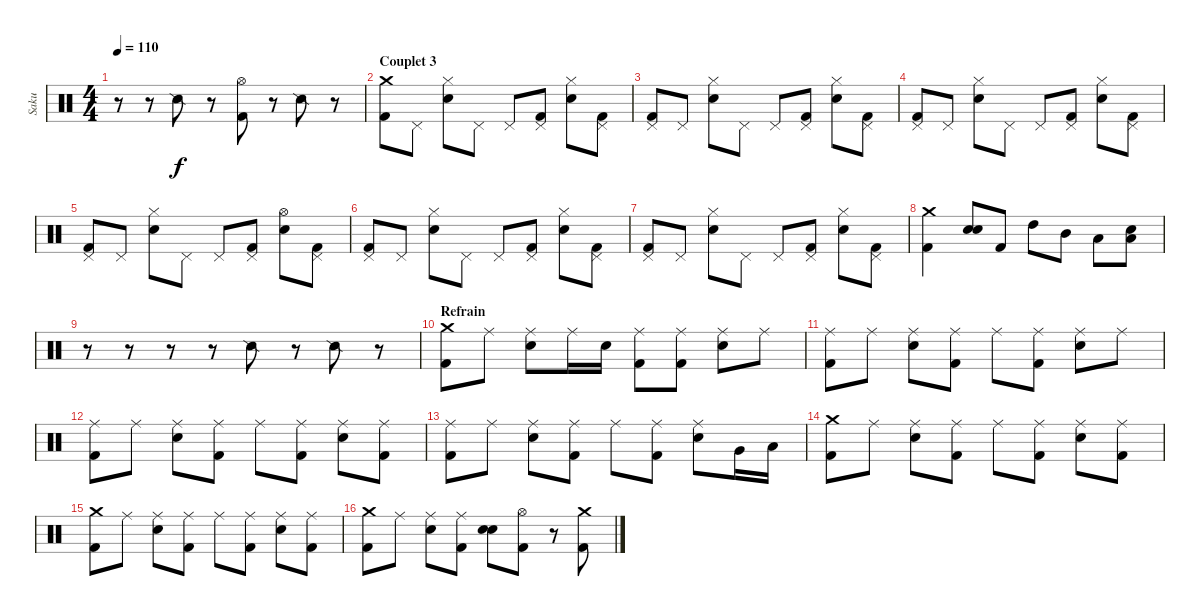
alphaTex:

\track ("Saku" "Saku") {instrument percussion}
\staff {score}
\articulation defaults
\ts (4 4)
\tempo 110
\clef neutral
\ks c
r.8{dy f} r.8 "Snare (side stick) 2".8 r.8 ("Hi-Hat (open)" "Kick (hit) 2").8 r.8 "Snare (side stick) 2".8 r.8 |
\section ("" "Couplet 3")
("Crash medium (hit)" "Kick (hit) 2").8 "Pedal Hi-Hat (hit)".8 ("Hi-Hat (closed)" "Electric Snare (hit)").8 "Pedal Hi-Hat (hit)".8 "Pedal Hi-Hat (hit)".8 ("Pedal Hi-Hat (hit)" "Kick (hit) 2").8 ("Hi-Hat (closed)" "Electric Snare (hit)").8 ("Pedal Hi-Hat (hit)" "Kick (hit) 2").8 |
("Pedal Hi-Hat (hit)" "Kick (hit) 2").8 "Pedal Hi-Hat (hit)".8 ("Hi-Hat (closed)" "Electric Snare (hit)").8 "Pedal Hi-Hat (hit)".8 "Pedal Hi-Hat (hit)".8 ("Pedal Hi-Hat (hit)" "Kick (hit) 2").8 ("Hi-Hat (closed)" "Electric Snare (hit)").8 ("Pedal Hi-Hat (hit)" "Kick (hit) 2").8 |
("Pedal Hi-Hat (hit)" "Kick (hit) 2").8 "Pedal Hi-Hat (hit)".8 ("Hi-Hat (closed)" "Electric Snare (hit)").8 "Pedal Hi-Hat (hit)".8 "Pedal Hi-Hat (hit)".8 ("Pedal Hi-Hat (hit)" "Kick (hit) 2").8 ("Hi-Hat (closed)" "Electric Snare (hit)").8 ("Pedal Hi-Hat (hit)" "Kick (hit) 2").8 |
("Pedal Hi-Hat (hit)" "Kick (hit) 2").8 "Pedal Hi-Hat (hit)".8 ("Hi-Hat (closed)" "Electric Snare (hit)").8 "Pedal Hi-Hat (hit)".8 "Pedal Hi-Hat (hit)".8 ("Pedal Hi-Hat (hit)" "Kick (hit) 2").8 ("Hi-Hat (open)" "Electric Snare (hit)").8 ("Pedal Hi-Hat (hit)" "Kick (hit) 2").8 |
("Pedal Hi-Hat (hit)" "Kick (hit) 2").8 "Pedal Hi-Hat (hit)".8 ("Hi-Hat (closed)" "Electric Snare (hit)").8 "Pedal Hi-Hat (hit)".8 "Pedal Hi-Hat (hit)".8 ("Pedal Hi-Hat (hit)" "Kick (hit) 2").8 ("Hi-Hat (closed)" "Electric Snare (hit)").8 ("Pedal Hi-Hat (hit)" "Kick (hit) 2").8 |
("Pedal Hi-Hat (hit)" "Kick (hit) 2").8 "Pedal Hi-Hat (hit)".8 ("Hi-Hat (closed)" "Electric Snare (hit)").8 "Pedal Hi-Hat (hit)".8 "Pedal Hi-Hat (hit)".8 ("Pedal Hi-Hat (hit)" "Kick (hit) 2").8 ("Hi-Hat (closed)" "Electric Snare (hit)").8 ("Pedal Hi-Hat (hit)" "Kick (hit) 2").8 |
("Crash medium (hit)" "Kick (hit) 2").4 ("Electric Snare (hit)" "Electric Snare (hit)").8{bu 60} "Kick (hit) 2".8 "High Tom (hit)".8 "Mid Tom (hit)".8 "Low Tom (hit)".8 ("Electric Snare (hit)" "Low Floor Tom (hit)").8 |
r.8 r.8 r.8 r.8 "Snare (side stick) 2".8 r.8 "Snare (side stick) 2".8 r.8 |
\section ("" "Refrain")
("Crash medium (hit)" "Kick (hit) 2").8 "Ride (middle)".8 ("Ride (middle)" "Electric Snare (hit)").8 "Ride (middle)".16 "Electric Snare (hit)".16 ("Ride (middle)" "Kick (hit) 2").8 ("Ride (middle)" "Kick (hit) 2").8 ("Ride (middle)" "Electric Snare (hit)").8 "Ride (middle)".8 |
("Ride (middle)" "Kick (hit) 2").8 "Ride (middle)".8 ("Ride (middle)" "Electric Snare (hit)").8 ("Ride (middle)" "Kick (hit) 2").8 "Ride (middle)".8 ("Ride (middle)" "Kick (hit) 2").8 ("Ride (middle)" "Electric Snare (hit)").8 "Ride (middle)".8 |
("Ride (middle)" "Kick (hit) 2").8 "Ride (middle)".8 ("Ride (middle)" "Electric Snare (hit)").8 ("Ride (middle)" "Kick (hit) 2").8 "Ride (middle)".8 ("Ride (middle)" "Kick (hit) 2").8 ("Ride (middle)" "Electric Snare (hit)").8 ("Ride (middle)" "Kick (hit) 2").8 |
("Ride (middle)" "Kick (hit) 2").8 "Ride (middle)".8 ("Ride (middle)" "Electric Snare (hit)").8 ("Ride (middle)" "Kick (hit) 2").8 "Ride (middle)".8 ("Ride (middle)" "Kick (hit) 2").8 ("Ride (middle)" "Electric Snare (hit)").8 "Very Low Tom (hit)".16 "Low Floor Tom (hit)".16 |
("Crash medium (hit)" "Kick (hit) 2").8 "Ride (middle)".8 ("Ride (middle)" "Electric Snare (hit)").8 ("Ride (middle)" "Kick (hit) 2").8 "Ride (middle)".8 ("Ride (middle)" "Kick (hit) 2").8 ("Ride (middle)" "Electric Snare (hit)").8 ("Ride (middle)" "Kick (hit) 2").8 |
("Crash medium (hit)" "Kick (hit) 2").8 "Ride (middle)".8 ("Ride (middle)" "Electric Snare (hit)").8 ("Ride (middle)" "Kick (hit) 2").8 "Ride (middle)".8 ("Ride (middle)" "Kick (hit) 2").8 ("Ride (middle)" "Electric Snare (hit)").8 ("Ride (middle)" "Kick (hit) 2").8 |
("Crash medium (hit)" "Kick (hit) 2").8 "Ride (middle)".8 ("Ride (middle)" "Electric Snare (hit)").8 ("Ride (middle)" "Kick (hit) 2").8 ("Electric Snare (hit)" "Electric Snare (hit)").8{bu 60} ("Hi-Hat (open)" "Kick (hit) 2").8 r.8 ("Crash medium (hit)" "Kick (hit) 2").8
